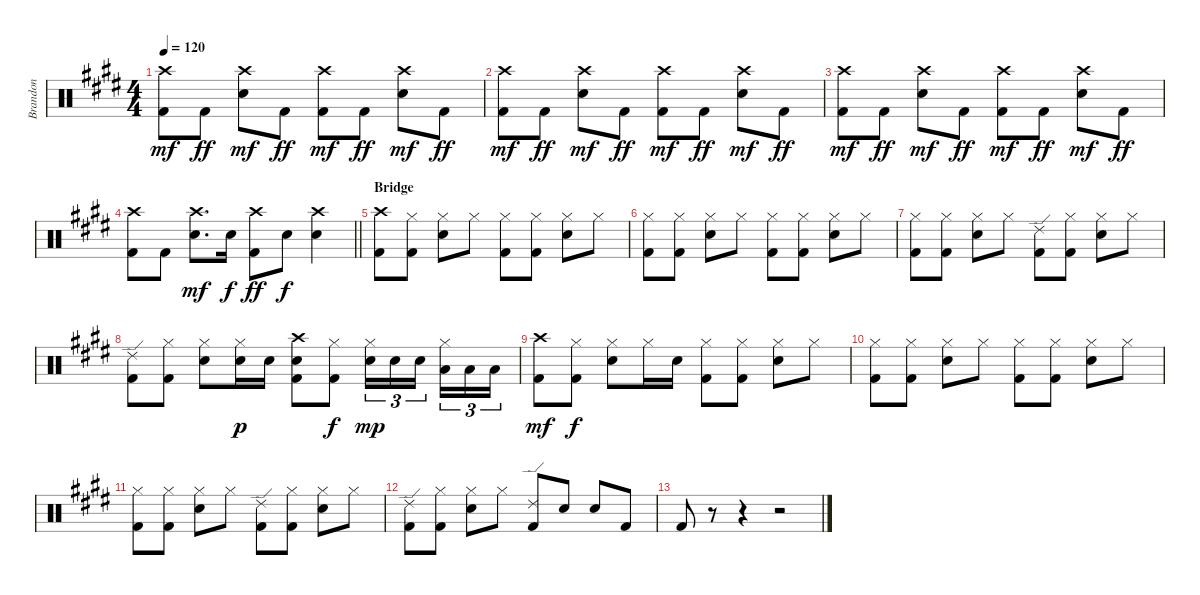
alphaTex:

\track ("Brandon" "Brandon") {instrument percussion}
\staff {score}
\articulation defaults
\ts (4 4)
\tempo 120
\clef neutral
\ks e
("Kick (hit) 2" "Crash high (hit)").8{dy mf} "Kick (hit) 2".8{dy ff} ("Snare (hit) 2" "Crash high (hit)").8{dy mf} "Kick (hit) 2".8{dy ff} ("Kick (hit) 2" "Crash high (hit)").8{dy mf} "Kick (hit) 2".8{dy ff} ("Snare (hit) 2" "Crash high (hit)").8{dy mf} "Kick (hit) 2".8{dy ff} |
("Kick (hit) 2" "Crash high (hit)").8{dy mf} "Kick (hit) 2".8{dy ff} ("Snare (hit) 2" "Crash high (hit)").8{dy mf} "Kick (hit) 2".8{dy ff} ("Kick (hit) 2" "Crash high (hit)").8{dy mf} "Kick (hit) 2".8{dy ff} ("Snare (hit) 2" "Crash high (hit)").8{dy mf} "Kick (hit) 2".8{dy ff} |
("Kick (hit) 2" "Crash high (hit)").8{dy mf} "Kick (hit) 2".8{dy ff} ("Snare (hit) 2" "Crash high (hit)").8{dy mf} "Kick (hit) 2".8{dy ff} ("Kick (hit) 2" "Crash high (hit)").8{dy mf} "Kick (hit) 2".8{dy ff} ("Snare (hit) 2" "Crash high (hit)").8{dy mf} "Kick (hit) 2".8{dy ff} |
\barLineRight lightlight
("Kick (hit) 2" "Crash high (hit)").8 "Kick (hit) 2".8 ("Snare (hit) 2" "Crash high (hit)").8{d dy mf} "Snare (hit) 2".16{dy f} ("Kick (hit) 2" "Crash high (hit)").8{dy ff} "Snare (hit) 2".8{dy f} ("Snare (hit) 2" "Crash high (hit)").4 |
\section ("" "Bridge")
("Crash high (hit)" "Kick (hit) 2").8 ("Hi-Hat (closed)" "Kick (hit) 2").8 ("Hi-Hat (closed)" "Snare (hit) 2").8 "Hi-Hat (closed)".8 ("Hi-Hat (closed)" "Kick (hit) 2").8 ("Hi-Hat (closed)" "Kick (hit) 2").8 ("Hi-Hat (closed)" "Snare (hit) 2").8 "Hi-Hat (closed)".8 |
("Hi-Hat (closed)" "Kick (hit) 2").8 ("Hi-Hat (closed)" "Kick (hit) 2").8 ("Hi-Hat (closed)" "Snare (hit) 2").8 "Hi-Hat (closed)".8 ("Hi-Hat (closed)" "Kick (hit) 2").8 ("Hi-Hat (closed)" "Kick (hit) 2").8 ("Hi-Hat (closed)" "Snare (hit) 2").8 "Hi-Hat (closed)".8 |
("Hi-Hat (closed)" "Kick (hit) 2").8 ("Hi-Hat (closed)" "Kick (hit) 2").8 ("Hi-Hat (closed)" "Snare (hit) 2").8 "Hi-Hat (closed)".8 ("Ride (edge) 2" "Kick (hit) 2").8 ("Hi-Hat (closed)" "Kick (hit) 2").8 ("Hi-Hat (closed)" "Snare (hit) 2").8 "Hi-Hat (closed)".8 |
("Ride (edge) 2" "Kick (hit) 2").8 ("Hi-Hat (closed)" "Kick (hit) 2").8 ("Hi-Hat (closed)" "Snare (hit) 2").8 ("Hi-Hat (closed)" "Snare (hit) 2").16{dy p} "Snare (hit) 2".16 ("Crash high (hit)" "Kick (hit) 2" "Snare (hit) 2").8 ("Hi-Hat (closed)" "Kick (hit) 2").8{dy f} ("Hi-Hat (closed)" "Snare (hit) 2").16{tu (3 2) dy mp} "Snare (hit) 2".16{tu (3 2)} "Snare (hit) 2".16{tu (3 2) beam splitsecondary} ("Low Tom (hit)" "Hi-Hat (closed)").16{tu (3 2)} "Low Tom (hit)".16{tu (3 2)} "Low Tom (hit)".16{tu (3 2)} |
("Crash high (hit)" "Kick (hit) 2").8{dy mf} ("Hi-Hat (closed)" "Kick (hit) 2").8{dy f} ("Hi-Hat (closed)" "Snare (hit) 2").8 "Hi-Hat (closed)".16 "Snare (hit) 2".16 ("Hi-Hat (closed)" "Kick (hit) 2").8 ("Hi-Hat (closed)" "Kick (hit) 2").8 ("Hi-Hat (closed)" "Snare (hit) 2").8 "Hi-Hat (closed)".8 |
("Hi-Hat (closed)" "Kick (hit) 2").8 ("Hi-Hat (closed)" "Kick (hit) 2").8 ("Hi-Hat (closed)" "Snare (hit) 2").8 "Hi-Hat (closed)".8 ("Hi-Hat (closed)" "Kick (hit) 2").8 ("Hi-Hat (closed)" "Kick (hit) 2").8 ("Hi-Hat (closed)" "Snare (hit) 2").8 "Hi-Hat (closed)".8 |
("Hi-Hat (closed)" "Kick (hit) 2").8 ("Hi-Hat (closed)" "Kick (hit) 2").8 ("Hi-Hat (closed)" "Snare (hit) 2").8 "Hi-Hat (closed)".8 ("Ride (edge) 2" "Kick (hit) 2").8 ("Hi-Hat (closed)" "Kick (hit) 2").8 ("Hi-Hat (closed)" "Snare (hit) 2").8 "Hi-Hat (closed)".8 |
("Ride (edge) 2" "Kick (hit) 2").8 ("Hi-Hat (closed)" "Kick (hit) 2").8 ("Hi-Hat (closed)" "Snare (hit) 2").8 "Hi-Hat (closed)".8 ("Ride (edge) 2" "Kick (hit) 2").8 "Snare (hit) 2".8 "Snare (hit) 2".8 "Kick (hit) 2".8 |
"Kick (hit) 2".8 r.8 r.4 r.2
